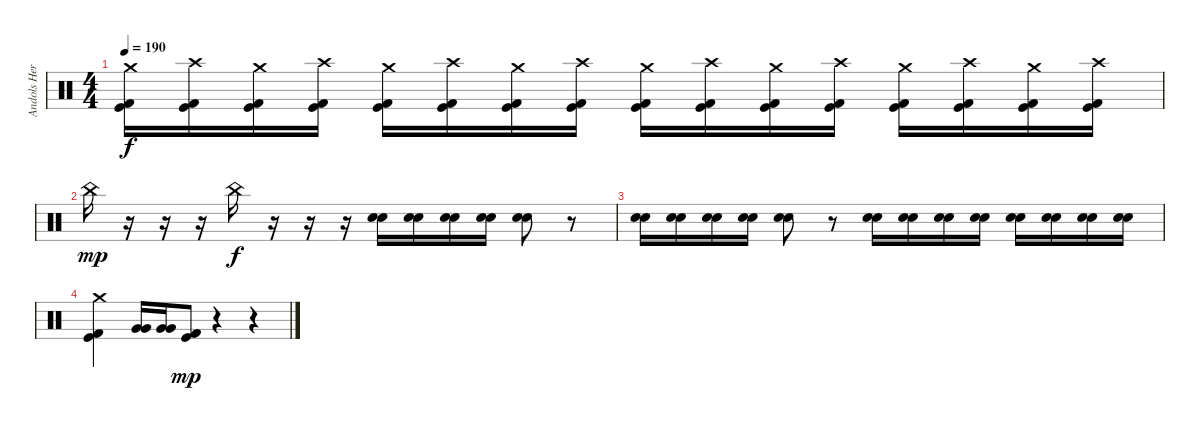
\track ("Andols Herrick" "Andols Her") {instrument percussion}
\staff {score}
\articulation defaults
\ts (4 4)
\tempo 190
\clef neutral
\ks c
("Crash medium (hit)" "Kick (hit) 2" "Kick (hit)").16{dy f} ("Crash high (hit)" "Kick (hit) 2" "Kick (hit)").16 ("Crash medium (hit)" "Kick (hit) 2" "Kick (hit)").16 ("Crash high (hit)" "Kick (hit) 2" "Kick (hit)").16 ("Crash medium (hit)" "Kick (hit) 2" "Kick (hit)").16 ("Crash high (hit)" "Kick (hit) 2" "Kick (hit)").16 ("Crash medium (hit)" "Kick (hit) 2" "Kick (hit)").16 ("Crash high (hit)" "Kick (hit) 2" "Kick (hit)").16 ("Crash medium (hit)" "Kick (hit) 2" "Kick (hit)").16 ("Crash high (hit)" "Kick (hit) 2" "Kick (hit)").16 ("Crash medium (hit)" "Kick (hit) 2" "Kick (hit)").16 ("Crash high (hit)" "Kick (hit) 2" "Kick (hit)").16 ("Crash medium (hit)" "Kick (hit) 2" "Kick (hit)").16 ("Crash high (hit)" "Kick (hit) 2" "Kick (hit)").16 ("Crash medium (hit)" "Kick (hit) 2" "Kick (hit)").16 ("Crash high (hit)" "Kick (hit) 2" "Kick (hit)").16 |
"China (hit)".16{dy mp} r.16 r.16 r.16 "China (hit)".16{dy f} r.16 r.16 r.16 ("Electric Snare (hit)" "Snare (hit) 2").16 ("Electric Snare (hit)" "Snare (hit) 2").16 ("Electric Snare (hit)" "Snare (hit) 2").16 ("Electric Snare (hit)" "Snare (hit) 2").16 ("Electric Snare (hit)" "Snare (hit) 2").8 r.8 |
("Electric Snare (hit)" "Snare (hit) 2").16 ("Electric Snare (hit)" "Snare (hit) 2").16 ("Electric Snare (hit)" "Snare (hit) 2").16 ("Electric Snare (hit)" "Snare (hit) 2").16 ("Electric Snare (hit)" "Snare (hit) 2").8 r.8 ("Electric Snare (hit)" "Snare (hit) 2").16 ("Electric Snare (hit)" "Snare (hit) 2").16 ("Electric Snare (hit)" "Snare (hit) 2").16 ("Electric Snare (hit)" "Snare (hit) 2").16 ("Electric Snare (hit)" "Snare (hit) 2").16 ("Electric Snare (hit)" "Snare (hit) 2").16 ("Electric Snare (hit)" "Snare (hit) 2").16 ("Electric Snare (hit)" "Snare (hit) 2").16 |
("Crash medium (hit)" "Kick (hit) 2" "Kick (hit)").4 ("Very Low Tom (hit)" "Very Low Tom (hit)").16 ("Very Low Tom (hit)" "Very Low Tom (hit)").16 ("Kick (hit) 2" "Kick (hit)").8{dy mp} r.4 r.4
